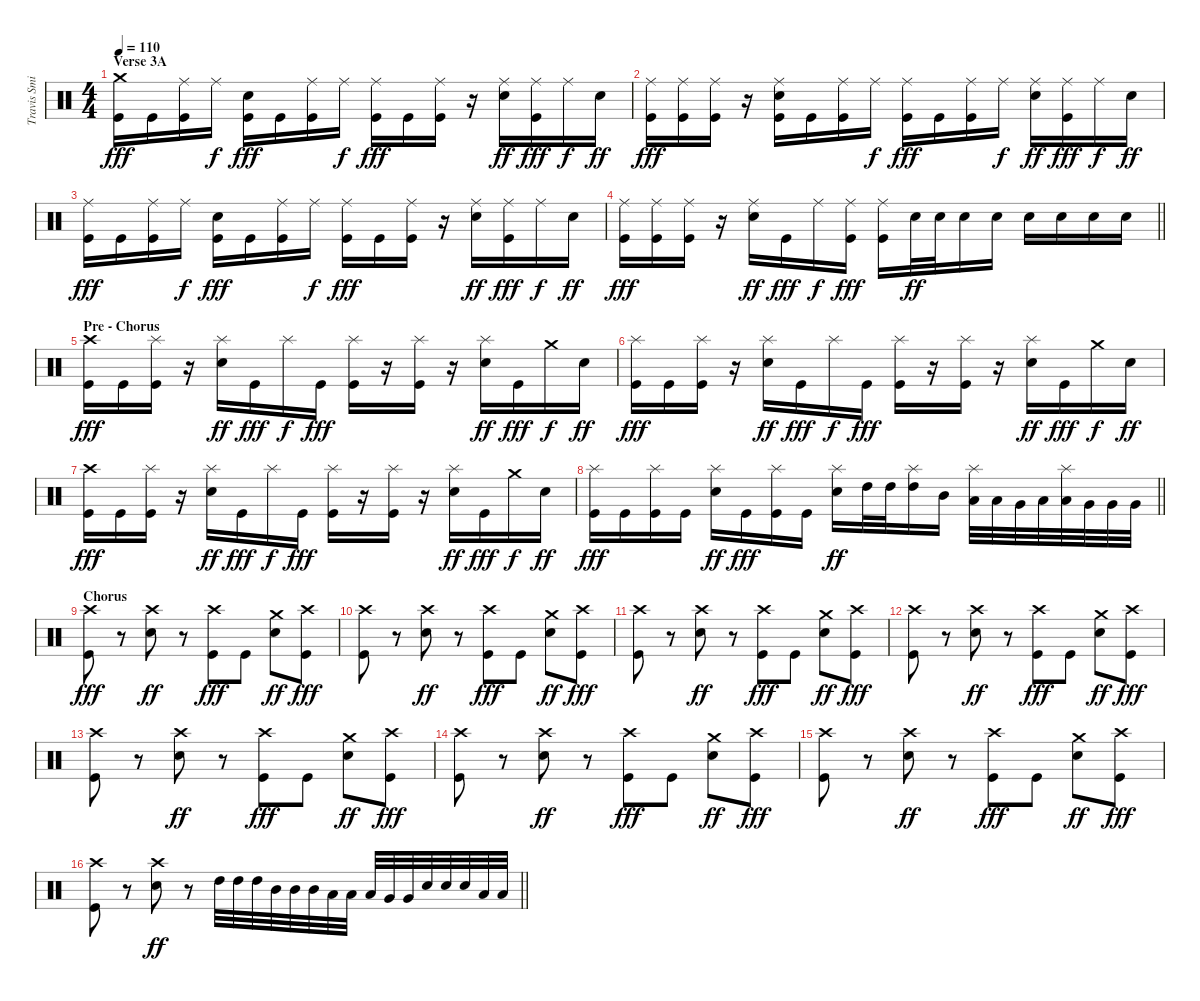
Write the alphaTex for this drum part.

\track ("Travis Smith" "Travis Smi") {instrument percussion}
\staff {score}
\articulation defaults
\ts (4 4)
\section ("" "Verse 3A")
\tempo 110
\clef neutral
\ks c
("Crash medium (hit)" "Kick (hit)").16{dy fff} "Kick (hit)".16 ("Ride (middle)" "Kick (hit)").16 "Ride (middle)".16{dy f} ("Electric Snare (hit)" "Kick (hit)").16{dy fff} "Kick (hit)".16 ("Ride (middle)" "Kick (hit)").16 "Ride (middle)".16{dy f} ("Ride (middle)" "Kick (hit)").16{dy fff} "Kick (hit)".16 ("Ride (middle)" "Kick (hit)").16 r.16 ("Ride (middle)" "Electric Snare (hit)").16{dy ff} ("Ride (middle)" "Kick (hit)").16{dy fff} "Ride (middle)".16{dy f} "Electric Snare (hit)".16{dy ff} |
("Ride (middle)" "Kick (hit)").16{dy fff} ("Ride (middle)" "Kick (hit)").16 ("Ride (middle)" "Kick (hit)").16 r.16 ("Ride (middle)" "Electric Snare (hit)" "Kick (hit)").16 "Kick (hit)".16 ("Ride (middle)" "Kick (hit)").16 "Ride (middle)".16{dy f} ("Ride (middle)" "Kick (hit)").16{dy fff} "Kick (hit)".16 ("Ride (middle)" "Kick (hit)").16 "Ride (middle)".16{dy f} ("Ride (middle)" "Electric Snare (hit)").16{dy ff} ("Ride (middle)" "Kick (hit)").16{dy fff} "Ride (middle)".16{dy f} "Electric Snare (hit)".16{dy ff} |
("Ride (middle)" "Kick (hit)").16{dy fff} "Kick (hit)".16 ("Ride (middle)" "Kick (hit)").16 "Ride (middle)".16{dy f} ("Electric Snare (hit)" "Kick (hit)").16{dy fff} "Kick (hit)".16 ("Ride (middle)" "Kick (hit)").16 "Ride (middle)".16{dy f} ("Ride (middle)" "Kick (hit)").16{dy fff} "Kick (hit)".16 ("Ride (middle)" "Kick (hit)").16 r.16 ("Ride (middle)" "Electric Snare (hit)").16{dy ff} ("Ride (middle)" "Kick (hit)").16{dy fff} "Ride (middle)".16{dy f} "Electric Snare (hit)".16{dy ff} |
\barLineRight lightlight
("Ride (middle)" "Kick (hit)").16{dy fff} ("Ride (middle)" "Kick (hit)").16 ("Ride (middle)" "Kick (hit)").16 r.16 ("Ride (middle)" "Electric Snare (hit)").16{dy ff} "Kick (hit)".16{dy fff} "Ride (middle)".16{dy f} ("Ride (middle)" "Kick (hit)").16{dy fff} ("Ride (middle)" "Kick (hit)").16 "Electric Snare (hit)".32{dy ff} "Electric Snare (hit)".32 "Electric Snare (hit)".16 "Electric Snare (hit)".16 "Electric Snare (hit)".16 "Electric Snare (hit)".16 "Electric Snare (hit)".16 "Electric Snare (hit)".16 |
\section ("" "Pre - Chorus")
("Crash high (hit)" "Kick (hit)").16{dy fff} "Kick (hit)".16 ("Splash (hit)" "Kick (hit)").16 r.16 ("Splash (hit)" "Electric Snare (hit)").16{dy ff} "Kick (hit)".16{dy fff} "Splash (hit)".16{dy f} "Kick (hit)".16{dy fff} ("Splash (hit)" "Kick (hit)").16 r.16 ("Splash (hit)" "Kick (hit)").16 r.16 ("Splash (hit)" "Electric Snare (hit)").16{dy ff} "Kick (hit)".16{dy fff} "Crash medium (hit)".16{dy f} "Electric Snare (hit)".16{dy ff} |
("Splash (hit)" "Kick (hit)").16{dy fff} "Kick (hit)".16 ("Splash (hit)" "Kick (hit)").16 r.16 ("Splash (hit)" "Electric Snare (hit)").16{dy ff} "Kick (hit)".16{dy fff} "Splash (hit)".16{dy f} "Kick (hit)".16{dy fff} ("Splash (hit)" "Kick (hit)").16 r.16 ("Splash (hit)" "Kick (hit)").16 r.16 ("Splash (hit)" "Electric Snare (hit)").16{dy ff} "Kick (hit)".16{dy fff} "Crash medium (hit)".16{dy f} "Electric Snare (hit)".16{dy ff} |
("Crash high (hit)" "Kick (hit)").16{dy fff} "Kick (hit)".16 ("Splash (hit)" "Kick (hit)").16 r.16 ("Splash (hit)" "Electric Snare (hit)").16{dy ff} "Kick (hit)".16{dy fff} "Splash (hit)".16{dy f} "Kick (hit)".16{dy fff} ("Splash (hit)" "Kick (hit)").16 r.16 ("Splash (hit)" "Kick (hit)").16 r.16 ("Splash (hit)" "Electric Snare (hit)").16{dy ff} "Kick (hit)".16{dy fff} "Crash medium (hit)".16{dy f} "Electric Snare (hit)".16{dy ff} |
\barLineRight lightlight
("Splash (hit)" "Kick (hit)").16{dy fff} "Kick (hit)".16 ("Splash (hit)" "Kick (hit)").16 "Kick (hit)".16 ("Splash (hit)" "Electric Snare (hit)").16{dy ff} "Kick (hit)".16{dy fff} ("Splash (hit)" "Kick (hit)").16 "Kick (hit)".16 ("Splash (hit)" "Electric Snare (hit)").16{dy ff} "High Tom (hit)".32 "High Tom (hit)".32 ("Splash (hit)" "High Tom (hit)").16 "Mid Tom (hit)".16 ("Splash (hit)" "Low Tom (hit)").32 "Low Tom (hit)".32 "Very Low Tom (hit)".32 "Low Floor Tom (hit)".32 ("Splash (hit)" "Low Floor Tom (hit)").32 "Very Low Tom (hit)".32 "Very Low Tom (hit)".32 "Very Low Tom (hit)".32 |
\section ("" "Chorus")
("Crash high (hit)" "Kick (hit)").8{dy fff} r.8 ("Crash high (hit)" "Electric Snare (hit)").8{dy ff} r.8 ("Crash high (hit)" "Kick (hit)").8{dy fff} "Kick (hit)".8 ("Crash medium (hit)" "Electric Snare (hit)").8{dy ff} ("Crash high (hit)" "Kick (hit)").8{dy fff} |
("Crash high (hit)" "Kick (hit)").8 r.8 ("Crash high (hit)" "Electric Snare (hit)").8{dy ff} r.8 ("Crash high (hit)" "Kick (hit)").8{dy fff} "Kick (hit)".8 ("Crash medium (hit)" "Electric Snare (hit)").8{dy ff} ("Crash high (hit)" "Kick (hit)").8{dy fff} |
("Crash high (hit)" "Kick (hit)").8 r.8 ("Crash high (hit)" "Electric Snare (hit)").8{dy ff} r.8 ("Crash high (hit)" "Kick (hit)").8{dy fff} "Kick (hit)".8 ("Crash medium (hit)" "Electric Snare (hit)").8{dy ff} ("Crash high (hit)" "Kick (hit)").8{dy fff} |
("Crash high (hit)" "Kick (hit)").8 r.8 ("Crash high (hit)" "Electric Snare (hit)").8{dy ff} r.8 ("Crash high (hit)" "Kick (hit)").8{dy fff} "Kick (hit)".8 ("Crash medium (hit)" "Electric Snare (hit)").8{dy ff} ("Crash high (hit)" "Kick (hit)").8{dy fff} |
("Crash high (hit)" "Kick (hit)").8 r.8 ("Crash high (hit)" "Electric Snare (hit)").8{dy ff} r.8 ("Crash high (hit)" "Kick (hit)").8{dy fff} "Kick (hit)".8 ("Crash medium (hit)" "Electric Snare (hit)").8{dy ff} ("Crash high (hit)" "Kick (hit)").8{dy fff} |
("Crash high (hit)" "Kick (hit)").8 r.8 ("Crash high (hit)" "Electric Snare (hit)").8{dy ff} r.8 ("Crash high (hit)" "Kick (hit)").8{dy fff} "Kick (hit)".8 ("Crash medium (hit)" "Electric Snare (hit)").8{dy ff} ("Crash high (hit)" "Kick (hit)").8{dy fff} |
("Crash high (hit)" "Kick (hit)").8 r.8 ("Crash high (hit)" "Electric Snare (hit)").8{dy ff} r.8 ("Crash high (hit)" "Kick (hit)").8{dy fff} "Kick (hit)".8 ("Crash medium (hit)" "Electric Snare (hit)").8{dy ff} ("Crash high (hit)" "Kick (hit)").8{dy fff} |
\barLineRight lightlight
("Crash high (hit)" "Kick (hit)").8 r.8 ("Crash high (hit)" "Electric Snare (hit)").8{dy ff} r.8 "High Tom (hit)".32 "High Tom (hit)".32 "High Tom (hit)".32 "Mid Tom (hit)".32 "Mid Tom (hit)".32 "Mid Tom (hit)".32 "Low Tom (hit)".32 "Low Tom (hit)".32 "Low Tom (hit)".32 "Very Low Tom (hit)".32 "Very Low Tom (hit)".32 "Electric Snare (hit)".32 "Electric Snare (hit)".32 "Electric Snare (hit)".32 "Low Floor Tom (hit)".32 "Low Floor Tom (hit)".32
